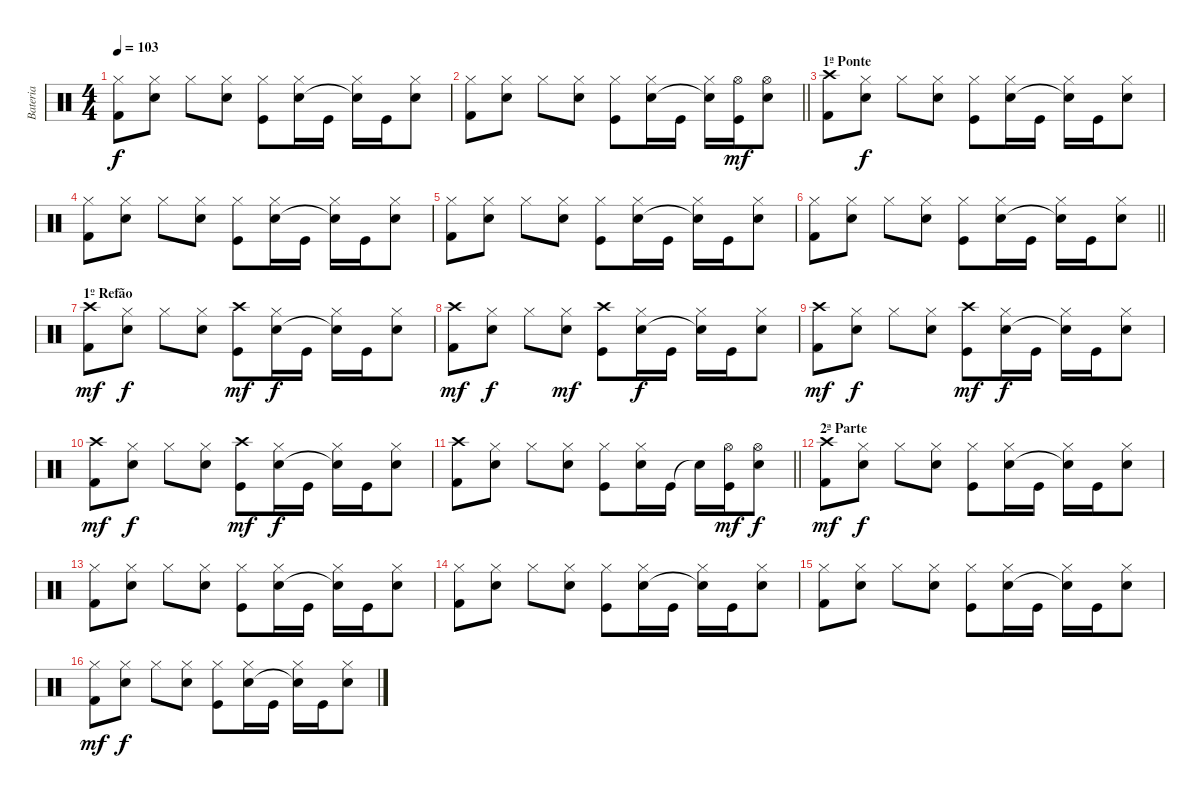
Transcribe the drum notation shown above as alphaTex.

\track ("Bateria" "Bateria") {instrument percussion}
\staff {score}
\articulation defaults
\ts (4 4)
\tempo 103
\clef neutral
\ks c
("Hi-Hat (closed)" "Kick (hit) 2").8{dy f} ("Hi-Hat (closed)" "Snare (hit) 2").8 "Hi-Hat (closed)".8 ("Hi-Hat (closed)" "Snare (hit) 2").8 ("Hi-Hat (closed)" "Kick (hit)").8 ("Hi-Hat (closed)" "Snare (hit) 2").16 "Kick (hit)".16 ("Hi-Hat (closed)" "Snare (hit)"{t}).16 "Kick (hit)".16 ("Hi-Hat (closed)" "Snare (hit) 2").8 |
\barLineRight lightlight
("Hi-Hat (closed)" "Kick (hit) 2").8 ("Hi-Hat (closed)" "Snare (hit) 2").8 "Hi-Hat (closed)".8 ("Hi-Hat (closed)" "Snare (hit) 2").8 ("Hi-Hat (closed)" "Kick (hit)").8 ("Hi-Hat (closed)" "Snare (hit) 2").16 "Kick (hit)".16 ("Hi-Hat (closed)" "Snare (hit)"{t}).16 ("Hi-Hat (open)" "Kick (hit)").16{dy mf} ("Hi-Hat (open)" "Snare (hit) 2").8 |
\section ("" "1ª Ponte")
("Crash high (hit)" "Kick (hit) 2").8 ("Hi-Hat (closed)" "Snare (hit) 2").8{dy f} "Hi-Hat (closed)".8 ("Hi-Hat (closed)" "Snare (hit) 2").8 ("Hi-Hat (closed)" "Kick (hit)").8 ("Hi-Hat (closed)" "Snare (hit) 2").16 "Kick (hit)".16 ("Hi-Hat (closed)" "Snare (hit)"{t}).16 "Kick (hit)".16 ("Hi-Hat (closed)" "Snare (hit) 2").8 |
("Hi-Hat (closed)" "Kick (hit) 2").8 ("Hi-Hat (closed)" "Snare (hit) 2").8 "Hi-Hat (closed)".8 ("Hi-Hat (closed)" "Snare (hit) 2").8 ("Hi-Hat (closed)" "Kick (hit)").8 ("Hi-Hat (closed)" "Snare (hit) 2").16 "Kick (hit)".16 ("Hi-Hat (closed)" "Snare (hit)"{t}).16 "Kick (hit)".16 ("Hi-Hat (closed)" "Snare (hit) 2").8 |
("Hi-Hat (closed)" "Kick (hit) 2").8 ("Hi-Hat (closed)" "Snare (hit) 2").8 "Hi-Hat (closed)".8 ("Hi-Hat (closed)" "Snare (hit) 2").8 ("Hi-Hat (closed)" "Kick (hit)").8 ("Hi-Hat (closed)" "Snare (hit) 2").16 "Kick (hit)".16 ("Hi-Hat (closed)" "Snare (hit)"{t}).16 "Kick (hit)".16 ("Hi-Hat (closed)" "Snare (hit) 2").8 |
\barLineRight lightlight
("Hi-Hat (closed)" "Kick (hit) 2").8 ("Hi-Hat (closed)" "Snare (hit) 2").8 "Hi-Hat (closed)".8 ("Hi-Hat (closed)" "Snare (hit) 2").8 ("Hi-Hat (closed)" "Kick (hit)").8 ("Hi-Hat (closed)" "Snare (hit) 2").16 "Kick (hit)".16 ("Hi-Hat (closed)" "Snare (hit)"{t}).16 "Kick (hit)".16 ("Hi-Hat (closed)" "Snare (hit) 2").8 |
\section ("" "1º Refão")
("Crash high (hit)" "Kick (hit) 2").8{dy mf} ("Hi-Hat (closed)" "Snare (hit) 2").8{dy f} "Hi-Hat (closed)".8 ("Hi-Hat (closed)" "Snare (hit) 2").8 ("Crash high (hit)" "Kick (hit)").8{dy mf} ("Hi-Hat (closed)" "Snare (hit) 2").16{dy f} "Kick (hit)".16 ("Hi-Hat (closed)" "Snare (hit)"{t}).16 "Kick (hit)".16 ("Hi-Hat (closed)" "Snare (hit) 2").8 |
("Crash high (hit)" "Kick (hit) 2").8{dy mf} ("Hi-Hat (closed)" "Snare (hit) 2").8{dy f} "Hi-Hat (closed)".8 ("Hi-Hat (closed)" "Snare (hit) 2").8{dy mf} ("Crash high (hit)" "Kick (hit)").8 ("Hi-Hat (closed)" "Snare (hit) 2").16{dy f} "Kick (hit)".16 ("Hi-Hat (closed)" "Snare (hit)"{t}).16 "Kick (hit)".16 ("Hi-Hat (closed)" "Snare (hit) 2").8 |
("Crash high (hit)" "Kick (hit) 2").8{dy mf} ("Hi-Hat (closed)" "Snare (hit) 2").8{dy f} "Hi-Hat (closed)".8 ("Hi-Hat (closed)" "Snare (hit) 2").8 ("Crash high (hit)" "Kick (hit)").8{dy mf} ("Hi-Hat (closed)" "Snare (hit) 2").16{dy f} "Kick (hit)".16 ("Hi-Hat (closed)" "Snare (hit)"{t}).16 "Kick (hit)".16 ("Hi-Hat (closed)" "Snare (hit) 2").8 |
("Crash high (hit)" "Kick (hit) 2").8{dy mf} ("Hi-Hat (closed)" "Snare (hit) 2").8{dy f} "Hi-Hat (closed)".8 ("Hi-Hat (closed)" "Snare (hit) 2").8 ("Crash high (hit)" "Kick (hit)").8{dy mf} ("Hi-Hat (closed)" "Snare (hit) 2").16{dy f} "Kick (hit)".16 ("Hi-Hat (closed)" "Snare (hit)"{t}).16 "Kick (hit)".16 ("Hi-Hat (closed)" "Snare (hit) 2").8 |
\barLineRight lightlight
("Crash high (hit)" "Kick (hit) 2").8 ("Hi-Hat (closed)" "Snare (hit) 2").8 "Hi-Hat (closed)".8 ("Hi-Hat (closed)" "Snare (hit) 2").8 ("Hi-Hat (closed)" "Kick (hit)").8 ("Hi-Hat (closed)" "Snare (hit) 2").16 "Kick (hit)".16 "Snare (hit)"{t}.16 ("Hi-Hat (open)" "Kick (hit)").16{dy mf} ("Hi-Hat (open)" "Snare (hit) 2").8{dy f} |
\section ("" "2ª Parte")
("Crash high (hit)" "Kick (hit) 2").8{dy mf} ("Hi-Hat (closed)" "Snare (hit) 2").8{dy f} "Hi-Hat (closed)".8 ("Hi-Hat (closed)" "Snare (hit) 2").8 ("Hi-Hat (closed)" "Kick (hit)").8 ("Hi-Hat (closed)" "Snare (hit) 2").16 "Kick (hit)".16 ("Hi-Hat (closed)" "Snare (hit)"{t}).16 "Kick (hit)".16 ("Hi-Hat (closed)" "Snare (hit) 2").8 |
("Hi-Hat (closed)" "Kick (hit) 2").8 ("Hi-Hat (closed)" "Snare (hit) 2").8 "Hi-Hat (closed)".8 ("Hi-Hat (closed)" "Snare (hit) 2").8 ("Hi-Hat (closed)" "Kick (hit)").8 ("Hi-Hat (closed)" "Snare (hit) 2").16 "Kick (hit)".16 ("Hi-Hat (closed)" "Snare (hit)"{t}).16 "Kick (hit)".16 ("Hi-Hat (closed)" "Snare (hit) 2").8 |
("Hi-Hat (closed)" "Kick (hit) 2").8 ("Hi-Hat (closed)" "Snare (hit) 2").8 "Hi-Hat (closed)".8 ("Hi-Hat (closed)" "Snare (hit) 2").8 ("Hi-Hat (closed)" "Kick (hit)").8 ("Hi-Hat (closed)" "Snare (hit) 2").16 "Kick (hit)".16 ("Hi-Hat (closed)" "Snare (hit)"{t}).16 "Kick (hit)".16 ("Hi-Hat (closed)" "Snare (hit) 2").8 |
("Hi-Hat (closed)" "Kick (hit) 2").8 ("Hi-Hat (closed)" "Snare (hit) 2").8 "Hi-Hat (closed)".8 ("Hi-Hat (closed)" "Snare (hit) 2").8 ("Hi-Hat (closed)" "Kick (hit)").8 ("Hi-Hat (closed)" "Snare (hit) 2").16 "Kick (hit)".16 ("Hi-Hat (closed)" "Snare (hit)"{t}).16 "Kick (hit)".16 ("Hi-Hat (closed)" "Snare (hit) 2").8 |
("Hi-Hat (closed)" "Kick (hit) 2").8{dy mf} ("Hi-Hat (closed)" "Snare (hit) 2").8{dy f} "Hi-Hat (closed)".8 ("Hi-Hat (closed)" "Snare (hit) 2").8 ("Hi-Hat (closed)" "Kick (hit)").8 ("Hi-Hat (closed)" "Snare (hit) 2").16 "Kick (hit)".16 ("Hi-Hat (closed)" "Snare (hit)"{t}).16 "Kick (hit)".16 ("Hi-Hat (closed)" "Snare (hit) 2").8
